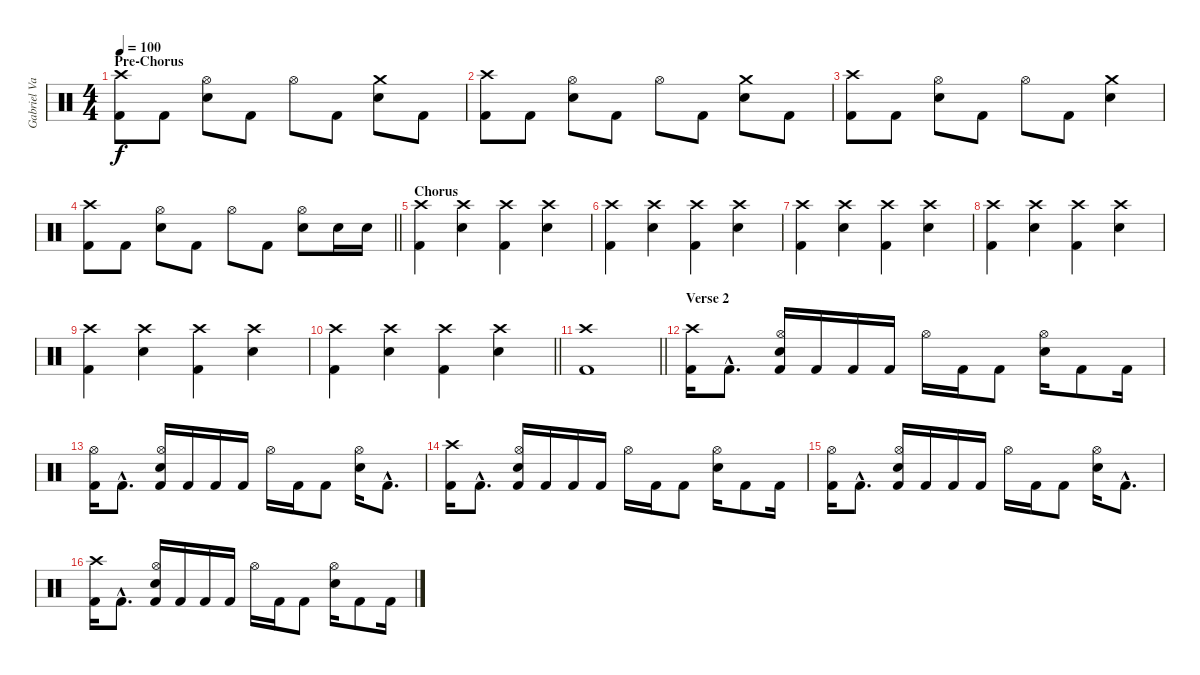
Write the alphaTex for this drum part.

\track ("Gabriel Valerio" "Gabriel Va") {instrument percussion}
\staff {score}
\articulation defaults
\ts (4 4)
\section ("" "Pre-Chorus")
\tempo 100
\clef neutral
\ks c
("Crash high (hit)" "Kick (hit) 2").8{dy f} "Kick (hit) 2".8 ("Hi-Hat (open)" "Snare (hit) 2").8 "Kick (hit) 2".8 "Hi-Hat (open)".8 "Kick (hit) 2".8 ("Crash medium (hit)" "Snare (hit) 2").8 "Kick (hit) 2".8 |
("Crash high (hit)" "Kick (hit) 2").8 "Kick (hit) 2".8 ("Hi-Hat (open)" "Snare (hit) 2").8 "Kick (hit) 2".8 "Hi-Hat (open)".8 "Kick (hit) 2".8 ("Crash medium (hit)" "Snare (hit) 2").8 "Kick (hit) 2".8 |
("Crash high (hit)" "Kick (hit) 2").8 "Kick (hit) 2".8 ("Hi-Hat (open)" "Snare (hit) 2").8 "Kick (hit) 2".8 "Hi-Hat (open)".8 "Kick (hit) 2".8 ("Crash medium (hit)" "Snare (hit) 2").4 |
\barLineRight lightlight
("Crash high (hit)" "Kick (hit) 2").8 "Kick (hit) 2".8 ("Hi-Hat (open)" "Snare (hit) 2").8 "Kick (hit) 2".8 "Hi-Hat (open)".8 "Kick (hit) 2".8 ("Hi-Hat (open)" "Snare (hit) 2").8 "Snare (hit) 2".16 "Snare (hit) 2".16 |
\section ("" "Chorus")
("Crash high (hit)" "Kick (hit) 2").4 ("Crash high (hit)" "Snare (hit) 2").4 ("Crash high (hit)" "Kick (hit) 2").4 ("Crash high (hit)" "Snare (hit) 2").4 |
("Crash high (hit)" "Kick (hit) 2").4 ("Crash high (hit)" "Snare (hit) 2").4 ("Crash high (hit)" "Kick (hit) 2").4 ("Crash high (hit)" "Snare (hit) 2").4 |
("Crash high (hit)" "Kick (hit) 2").4 ("Crash high (hit)" "Snare (hit) 2").4 ("Crash high (hit)" "Kick (hit) 2").4 ("Crash high (hit)" "Snare (hit) 2").4 |
("Crash high (hit)" "Kick (hit) 2").4 ("Crash high (hit)" "Snare (hit) 2").4 ("Crash high (hit)" "Kick (hit) 2").4 ("Crash high (hit)" "Snare (hit) 2").4 |
("Crash high (hit)" "Kick (hit) 2").4 ("Crash high (hit)" "Snare (hit) 2").4 ("Crash high (hit)" "Kick (hit) 2").4 ("Crash high (hit)" "Snare (hit) 2").4 |
\barLineRight lightlight
("Crash high (hit)" "Kick (hit) 2").4 ("Crash high (hit)" "Snare (hit) 2").4 ("Crash high (hit)" "Kick (hit) 2").4 ("Crash high (hit)" "Snare (hit) 2").4 |
\section ("" "")
\barLineRight lightlight
("Crash high (hit)" "Kick (hit) 2").1 |
\section ("" "Verse 2")
("Crash high (hit)" "Kick (hit) 2").16 "Kick (hit) 2"{hac}.8{d} ("Hi-Hat (open)" "Snare (hit) 2" "Kick (hit) 2").16 "Kick (hit) 2".16 "Kick (hit) 2".16 "Kick (hit) 2".16 "Hi-Hat (open)".16 "Kick (hit) 2".16 "Kick (hit) 2".8 ("Hi-Hat (open)" "Snare (hit) 2").16 "Kick (hit) 2".8 "Kick (hit) 2".16 |
("Hi-Hat (open)" "Kick (hit) 2").16 "Kick (hit) 2"{hac}.8{d} ("Hi-Hat (open)" "Snare (hit) 2" "Kick (hit) 2").16 "Kick (hit) 2".16 "Kick (hit) 2".16 "Kick (hit) 2".16 "Hi-Hat (open)".16 "Kick (hit) 2".16 "Kick (hit) 2".8 ("Hi-Hat (open)" "Snare (hit) 2").16 "Kick (hit) 2"{hac}.8{d} |
("Crash high (hit)" "Kick (hit) 2").16 "Kick (hit) 2"{hac}.8{d} ("Hi-Hat (open)" "Snare (hit) 2" "Kick (hit) 2").16 "Kick (hit) 2".16 "Kick (hit) 2".16 "Kick (hit) 2".16 "Hi-Hat (open)".16 "Kick (hit) 2".16 "Kick (hit) 2".8 ("Hi-Hat (open)" "Snare (hit) 2").16 "Kick (hit) 2".8 "Kick (hit) 2".16 |
("Hi-Hat (open)" "Kick (hit) 2").16 "Kick (hit) 2"{hac}.8{d} ("Hi-Hat (open)" "Snare (hit) 2" "Kick (hit) 2").16 "Kick (hit) 2".16 "Kick (hit) 2".16 "Kick (hit) 2".16 "Hi-Hat (open)".16 "Kick (hit) 2".16 "Kick (hit) 2".8 ("Hi-Hat (open)" "Snare (hit) 2").16 "Kick (hit) 2"{hac}.8{d} |
("Crash high (hit)" "Kick (hit) 2").16 "Kick (hit) 2"{hac}.8{d} ("Hi-Hat (open)" "Snare (hit) 2" "Kick (hit) 2").16 "Kick (hit) 2".16 "Kick (hit) 2".16 "Kick (hit) 2".16 "Hi-Hat (open)".16 "Kick (hit) 2".16 "Kick (hit) 2".8 ("Hi-Hat (open)" "Snare (hit) 2").16 "Kick (hit) 2".8 "Kick (hit) 2".16
